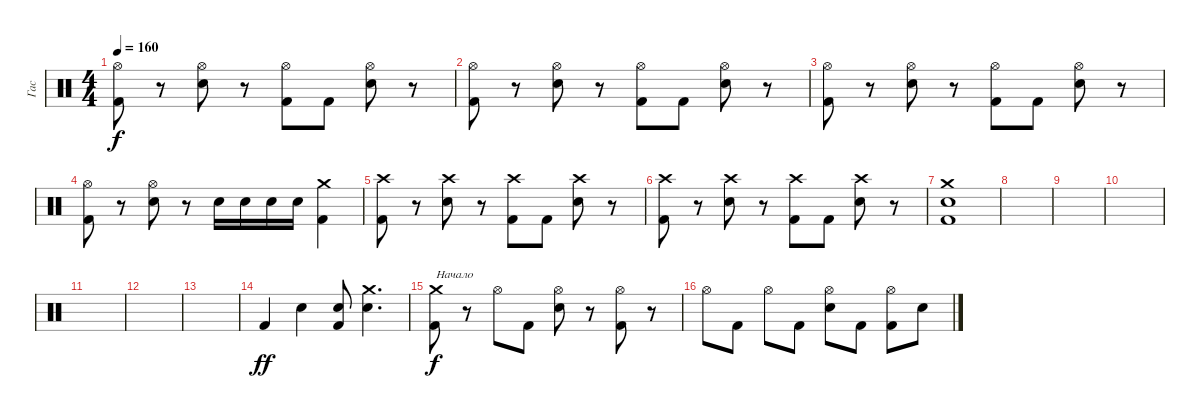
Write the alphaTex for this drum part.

\track ("Гас" "Гас") {instrument percussion}
\staff {score}
\articulation defaults
\ts (4 4)
\tempo 160
\clef neutral
\ks c
("Hi-Hat (open)" "Kick (hit) 2").8{dy f} r.8 ("Hi-Hat (open)" "Electric Snare (hit)").8 r.8 ("Hi-Hat (open)" "Kick (hit) 2").8 "Kick (hit) 2".8 ("Hi-Hat (open)" "Electric Snare (hit)").8 r.8 |
("Hi-Hat (open)" "Kick (hit) 2").8 r.8 ("Hi-Hat (open)" "Electric Snare (hit)").8 r.8 ("Hi-Hat (open)" "Kick (hit) 2").8 "Kick (hit) 2".8 ("Hi-Hat (open)" "Electric Snare (hit)").8 r.8 |
("Hi-Hat (open)" "Kick (hit) 2").8 r.8 ("Hi-Hat (open)" "Electric Snare (hit)").8 r.8 ("Hi-Hat (open)" "Kick (hit) 2").8 "Kick (hit) 2".8 ("Hi-Hat (open)" "Electric Snare (hit)").8 r.8 |
("Hi-Hat (open)" "Kick (hit) 2").8 r.8 ("Hi-Hat (open)" "Electric Snare (hit)").8 r.8 "Electric Snare (hit)".16 "Electric Snare (hit)".16 "Electric Snare (hit)".16 "Electric Snare (hit)".16 ("Crash medium (hit)" "Kick (hit) 2").4 |
("Crash high (hit)" "Kick (hit) 2").8 r.8 ("Crash high (hit)" "Electric Snare (hit)").8 r.8 ("Crash high (hit)" "Kick (hit) 2").8 "Kick (hit) 2".8 ("Crash high (hit)" "Electric Snare (hit)").8 r.8 |
("Crash high (hit)" "Kick (hit) 2").8 r.8 ("Crash high (hit)" "Electric Snare (hit)").8 r.8 ("Crash high (hit)" "Kick (hit) 2").8 "Kick (hit) 2".8 ("Crash high (hit)" "Electric Snare (hit)").8 r.8 |
("Crash medium (hit)" "Kick (hit) 2" "Electric Snare (hit)").1 |
|
|
|
|
|
|
"Kick (hit) 2".4{dy ff} "Electric Snare (hit)".4 ("Electric Snare (hit)" "Kick (hit) 2").8 ("Crash medium (hit)" "Electric Snare (hit)").4{d} |
("Crash medium (hit)" "Kick (hit) 2").8{txt "Начало" dy f} r.8 "Hi-Hat (open)".8 "Kick (hit) 2".8 ("Hi-Hat (open)" "Electric Snare (hit)").8 r.8 ("Hi-Hat (open)" "Kick (hit) 2").8 r.8 |
"Hi-Hat (open)".8 "Kick (hit) 2".8 "Hi-Hat (open)".8 "Kick (hit) 2".8 ("Hi-Hat (open)" "Electric Snare (hit)").8 "Kick (hit) 2".8 ("Hi-Hat (open)" "Kick (hit) 2").8 "Electric Snare (hit)".8
